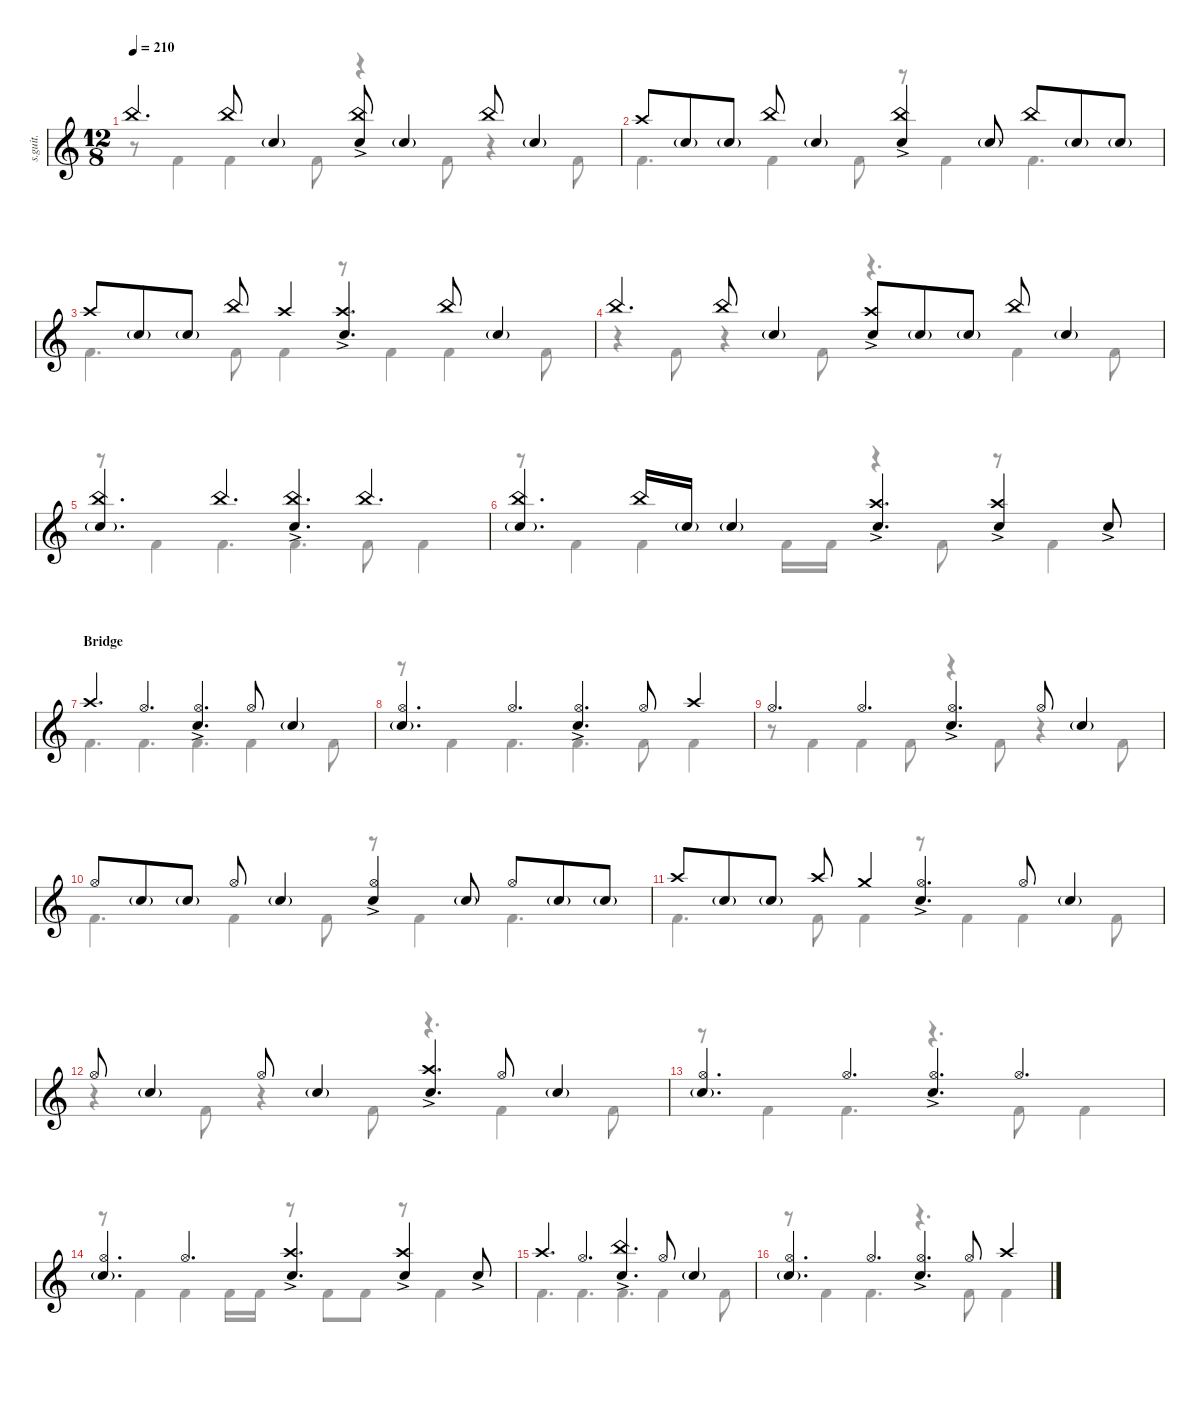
\defaultSystemsLayout 4
\hideDynamics
\bracketExtendMode nobrackets
\track ("Percussion" "s.guit.") {instrument percussion}
\staff {score}
\articulation defaults
\voice
\ts (12 8)
\tempo 210
\clef g2
\ks c "China (hit)".4{d lyrics (0 "") lyrics (1 "") lyrics (2 "") lyrics (3 "") lyrics (4 "") dy f} "China (hit)".8{lyrics (0 "") lyrics (1 "") lyrics (2 "") lyrics (3 "") lyrics (4 "")} "Snare (hit) 2"{g}.4{lyrics (0 "") lyrics (1 "") lyrics (2 "") lyrics (3 "") lyrics (4 "") dy ff}
("Snare (hit) 2"{ac} "China (hit)").8{lyrics (0 "") lyrics (1 "") lyrics (2 "") lyrics (3 "") lyrics (4 "") dy f} "Snare (hit) 2"{g}.4{lyrics (0 "") lyrics (1 "") lyrics (2 "") lyrics (3 "") lyrics (4 "") dy ff} "China (hit)".8{lyrics (0 "") lyrics (1 "") lyrics (2 "") lyrics (3 "") lyrics (4 "") dy f} "Snare (hit) 2"{g}.4{lyrics (0 "") lyrics (1 "") lyrics (2 "") lyrics (3 "") lyrics (4 "") dy ff} |
"Crash high (hit)".8{lyrics (0 "") lyrics (1 "") lyrics (2 "") lyrics (3 "") lyrics (4 "") dy f} "Snare (hit) 2"{g}.8{lyrics (0 "") lyrics (1 "") lyrics (2 "") lyrics (3 "") lyrics (4 "") dy ff} "Snare (hit) 2"{g}.8{lyrics (0 "") lyrics (1 "") lyrics (2 "") lyrics (3 "") lyrics (4 "")} "China (hit)".8{lyrics (0 "") lyrics (1 "") lyrics (2 "") lyrics (3 "") lyrics (4 "") dy f} "Snare (hit) 2"{g}.4{lyrics (0 "") lyrics (1 "") lyrics (2 "") lyrics (3 "") lyrics (4 "") dy ff} ("China (hit)" "Snare (hit) 2"{ac}).4{lyrics (0 "") lyrics (1 "") lyrics (2 "") lyrics (3 "") lyrics (4 "") dy f} "Snare (hit) 2"{g}.8{lyrics (0 "") lyrics (1 "") lyrics (2 "") lyrics (3 "") lyrics (4 "") dy ff} "China (hit)".8{lyrics (0 "") lyrics (1 "") lyrics (2 "") lyrics (3 "") lyrics (4 "") dy f} "Snare (hit) 2"{g}.8{lyrics (0 "") lyrics (1 "") lyrics (2 "") lyrics (3 "") lyrics (4 "") dy ff} "Snare (hit) 2"{g}.8{lyrics (0 "") lyrics (1 "") lyrics (2 "") lyrics (3 "") lyrics (4 "")} |
"Crash high (hit)".8{lyrics (0 "") lyrics (1 "") lyrics (2 "") lyrics (3 "") lyrics (4 "") dy f} "Snare (hit) 2"{g}.8{lyrics (0 "") lyrics (1 "") lyrics (2 "") lyrics (3 "") lyrics (4 "") dy ff} "Snare (hit) 2"{g}.8{lyrics (0 "") lyrics (1 "") lyrics (2 "") lyrics (3 "") lyrics (4 "")} "China (hit)".8{lyrics (0 "") lyrics (1 "") lyrics (2 "") lyrics (3 "") lyrics (4 "") dy f} "Crash high (hit)".4{lyrics (0 "") lyrics (1 "") lyrics (2 "") lyrics (3 "") lyrics (4 "")} ("Snare (hit) 2"{ac} "Crash high (hit)").4{d lyrics (0 "") lyrics (1 "") lyrics (2 "") lyrics (3 "") lyrics (4 "")} "China (hit)".8{lyrics (0 "") lyrics (1 "") lyrics (2 "") lyrics (3 "") lyrics (4 "")} "Snare (hit) 2"{g}.4{lyrics (0 "") lyrics (1 "") lyrics (2 "") lyrics (3 "") lyrics (4 "") dy ff} |
"China (hit)".4{d lyrics (0 "") lyrics (1 "") lyrics (2 "") lyrics (3 "") lyrics (4 "") dy f} "China (hit)".8{lyrics (0 "") lyrics (1 "") lyrics (2 "") lyrics (3 "") lyrics (4 "")} "Snare (hit) 2"{g}.4{lyrics (0 "") lyrics (1 "") lyrics (2 "") lyrics (3 "") lyrics (4 "") dy ff} ("Snare (hit) 2"{ac} "Crash high (hit)").8{lyrics (0 "") lyrics (1 "") lyrics (2 "") lyrics (3 "") lyrics (4 "") dy f} "Snare (hit) 2"{g}.8{lyrics (0 "") lyrics (1 "") lyrics (2 "") lyrics (3 "") lyrics (4 "") dy ff} "Snare (hit) 2"{g}.8{lyrics (0 "") lyrics (1 "") lyrics (2 "") lyrics (3 "") lyrics (4 "")} "China (hit)".8{lyrics (0 "") lyrics (1 "") lyrics (2 "") lyrics (3 "") lyrics (4 "") dy f} "Snare (hit) 2"{g}.4{lyrics (0 "") lyrics (1 "") lyrics (2 "") lyrics (3 "") lyrics (4 "") dy ff} |
("Snare (hit) 2"{g} "China (hit)").4{d lyrics (0 "") lyrics (1 "") lyrics (2 "") lyrics (3 "") lyrics (4 "") dy f} "China (hit)".4{d lyrics (0 "") lyrics (1 "") lyrics (2 "") lyrics (3 "") lyrics (4 "")} ("Snare (hit) 2"{ac} "China (hit)").4{d lyrics (0 "") lyrics (1 "") lyrics (2 "") lyrics (3 "") lyrics (4 "")} "China (hit)".4{d lyrics (0 "") lyrics (1 "") lyrics (2 "") lyrics (3 "") lyrics (4 "")} |
("Snare (hit) 2"{g} "China (hit)").4{d lyrics (0 "") lyrics (1 "") lyrics (2 "") lyrics (3 "") lyrics (4 "")} "China (hit)".16{lyrics (0 "") lyrics (1 "") lyrics (2 "") lyrics (3 "") lyrics (4 "")} "Snare (hit) 2"{g}.16{lyrics (0 "") lyrics (1 "") lyrics (2 "") lyrics (3 "") lyrics (4 "") dy ff} "Snare (hit) 2"{g}.4{lyrics (0 "") lyrics (1 "") lyrics (2 "") lyrics (3 "") lyrics (4 "")} ("Snare (hit) 2"{ac} "Crash high (hit)").4{d lyrics (0 "") lyrics (1 "") lyrics (2 "") lyrics (3 "") lyrics (4 "") dy f} ("Snare (hit) 2"{ac} "Crash high (hit)").4{lyrics (0 "") lyrics (1 "") lyrics (2 "") lyrics (3 "") lyrics (4 "")} "Snare (hit) 2"{ac}.8{lyrics (0 "") lyrics (1 "") lyrics (2 "") lyrics (3 "") lyrics (4 "") dy mf} |
\section ("" "Bridge")
"Crash high (hit)".4{d lyrics (0 "") lyrics (1 "") lyrics (2 "") lyrics (3 "") lyrics (4 "") dy f} "Hi-Hat (open)".4{d lyrics (0 "") lyrics (1 "") lyrics (2 "") lyrics (3 "") lyrics (4 "")} ("Snare (hit) 2"{ac} "Hi-Hat (open)").4{d lyrics (0 "") lyrics (1 "") lyrics (2 "") lyrics (3 "") lyrics (4 "")} "Hi-Hat (open)".8{lyrics (0 "") lyrics (1 "") lyrics (2 "") lyrics (3 "") lyrics (4 "")} "Snare (hit) 2"{g}.4{lyrics (0 "") lyrics (1 "") lyrics (2 "") lyrics (3 "") lyrics (4 "") dy ff} |
("Snare (hit) 2"{g} "Hi-Hat (open)").4{d lyrics (0 "") lyrics (1 "") lyrics (2 "") lyrics (3 "") lyrics (4 "") dy f} "Hi-Hat (open)".4{d lyrics (0 "") lyrics (1 "") lyrics (2 "") lyrics (3 "") lyrics (4 "")} ("Snare (hit) 2"{ac} "Hi-Hat (open)").4{d lyrics (0 "") lyrics (1 "") lyrics (2 "") lyrics (3 "") lyrics (4 "")} "Hi-Hat (open)".8{lyrics (0 "") lyrics (1 "") lyrics (2 "") lyrics (3 "") lyrics (4 "")} "Crash high (hit)".4{lyrics (0 "") lyrics (1 "") lyrics (2 "") lyrics (3 "") lyrics (4 "")} |
"Hi-Hat (open)".4{d lyrics (0 "") lyrics (1 "") lyrics (2 "") lyrics (3 "") lyrics (4 "")} "Hi-Hat (open)".4{d lyrics (0 "") lyrics (1 "") lyrics (2 "") lyrics (3 "") lyrics (4 "")} ("Snare (hit) 2"{ac} "Hi-Hat (open)").4{d lyrics (0 "") lyrics (1 "") lyrics (2 "") lyrics (3 "") lyrics (4 "")} "Hi-Hat (open)".8{lyrics (0 "") lyrics (1 "") lyrics (2 "") lyrics (3 "") lyrics (4 "")} "Snare (hit) 2"{g}.4{lyrics (0 "") lyrics (1 "") lyrics (2 "") lyrics (3 "") lyrics (4 "") dy ff} |
"Hi-Hat (open)".8{lyrics (0 "") lyrics (1 "") lyrics (2 "") lyrics (3 "") lyrics (4 "") dy f} "Snare (hit) 2"{g}.8{lyrics (0 "") lyrics (1 "") lyrics (2 "") lyrics (3 "") lyrics (4 "") dy ff} "Snare (hit) 2"{g}.8{lyrics (0 "") lyrics (1 "") lyrics (2 "") lyrics (3 "") lyrics (4 "")} "Hi-Hat (open)".8{lyrics (0 "") lyrics (1 "") lyrics (2 "") lyrics (3 "") lyrics (4 "") dy f} "Snare (hit) 2"{g}.4{lyrics (0 "") lyrics (1 "") lyrics (2 "") lyrics (3 "") lyrics (4 "") dy ff} ("Snare (hit) 2"{ac} "Hi-Hat (open)").4{lyrics (0 "") lyrics (1 "") lyrics (2 "") lyrics (3 "") lyrics (4 "") dy f} "Snare (hit) 2"{g}.8{lyrics (0 "") lyrics (1 "") lyrics (2 "") lyrics (3 "") lyrics (4 "") dy ff} "Hi-Hat (open)".8{lyrics (0 "") lyrics (1 "") lyrics (2 "") lyrics (3 "") lyrics (4 "") dy f} "Snare (hit) 2"{g}.8{lyrics (0 "") lyrics (1 "") lyrics (2 "") lyrics (3 "") lyrics (4 "") dy ff} "Snare (hit) 2"{g}.8{lyrics (0 "") lyrics (1 "") lyrics (2 "") lyrics (3 "") lyrics (4 "")} |
"Crash high (hit)".8{lyrics (0 "") lyrics (1 "") lyrics (2 "") lyrics (3 "") lyrics (4 "") dy f} "Snare (hit) 2"{g}.8{lyrics (0 "") lyrics (1 "") lyrics (2 "") lyrics (3 "") lyrics (4 "") dy ff} "Snare (hit) 2"{g}.8{lyrics (0 "") lyrics (1 "") lyrics (2 "") lyrics (3 "") lyrics (4 "")} "Crash high (hit)".8{lyrics (0 "") lyrics (1 "") lyrics (2 "") lyrics (3 "") lyrics (4 "") dy f} "Crash medium (hit)".4{lyrics (0 "") lyrics (1 "") lyrics (2 "") lyrics (3 "") lyrics (4 "")} ("Snare (hit) 2"{ac} "Hi-Hat (open)").4{d lyrics (0 "") lyrics (1 "") lyrics (2 "") lyrics (3 "") lyrics (4 "")} "Hi-Hat (open)".8{lyrics (0 "") lyrics (1 "") lyrics (2 "") lyrics (3 "") lyrics (4 "")} "Snare (hit) 2"{g}.4{lyrics (0 "") lyrics (1 "") lyrics (2 "") lyrics (3 "") lyrics (4 "") dy ff} |
"Hi-Hat (open)".8{lyrics (0 "") lyrics (1 "") lyrics (2 "") lyrics (3 "") lyrics (4 "") dy f} "Snare (hit) 2"{g}.4{lyrics (0 "") lyrics (1 "") lyrics (2 "") lyrics (3 "") lyrics (4 "") dy ff} "Hi-Hat (open)".8{lyrics (0 "") lyrics (1 "") lyrics (2 "") lyrics (3 "") lyrics (4 "") dy f} "Snare (hit) 2"{g}.4{lyrics (0 "") lyrics (1 "") lyrics (2 "") lyrics (3 "") lyrics (4 "") dy ff} ("Snare (hit) 2"{ac} "Crash high (hit)").4{d lyrics (0 "") lyrics (1 "") lyrics (2 "") lyrics (3 "") lyrics (4 "") dy f} "Hi-Hat (open)".8{lyrics (0 "") lyrics (1 "") lyrics (2 "") lyrics (3 "") lyrics (4 "")} "Snare (hit) 2"{g}.4{lyrics (0 "") lyrics (1 "") lyrics (2 "") lyrics (3 "") lyrics (4 "") dy ff} |
("Snare (hit) 2"{g} "Hi-Hat (open)").4{d lyrics (0 "") lyrics (1 "") lyrics (2 "") lyrics (3 "") lyrics (4 "") dy f} "Hi-Hat (open)".4{d lyrics (0 "") lyrics (1 "") lyrics (2 "") lyrics (3 "") lyrics (4 "")} ("Snare (hit) 2"{ac} "Hi-Hat (open)").4{d lyrics (0 "") lyrics (1 "") lyrics (2 "") lyrics (3 "") lyrics (4 "")} "Hi-Hat (open)".4{d lyrics (0 "") lyrics (1 "") lyrics (2 "") lyrics (3 "") lyrics (4 "")} |
("Snare (hit) 2"{g} "Hi-Hat (open)").4{d lyrics (0 "") lyrics (1 "") lyrics (2 "") lyrics (3 "") lyrics (4 "")} "Hi-Hat (open)".4{d lyrics (0 "") lyrics (1 "") lyrics (2 "") lyrics (3 "") lyrics (4 "")} ("Snare (hit) 2"{ac} "Crash high (hit)").4{d lyrics (0 "") lyrics (1 "") lyrics (2 "") lyrics (3 "") lyrics (4 "")} ("Snare (hit) 2"{ac} "Crash high (hit)").4{lyrics (0 "") lyrics (1 "") lyrics (2 "") lyrics (3 "") lyrics (4 "")} "Snare (hit) 2"{ac}.8{lyrics (0 "") lyrics (1 "") lyrics (2 "") lyrics (3 "") lyrics (4 "") dy mf} |
"Crash high (hit)".4{d lyrics (0 "") lyrics (1 "") lyrics (2 "") lyrics (3 "") lyrics (4 "") dy f} "Hi-Hat (open)".4{d lyrics (0 "") lyrics (1 "") lyrics (2 "") lyrics (3 "") lyrics (4 "")} ("Snare (hit) 2"{ac} "China (hit)").4{d lyrics (0 "") lyrics (1 "") lyrics (2 "") lyrics (3 "") lyrics (4 "")} "Hi-Hat (open)".8{lyrics (0 "") lyrics (1 "") lyrics (2 "") lyrics (3 "") lyrics (4 "")} "Snare (hit) 2"{g}.4{lyrics (0 "") lyrics (1 "") lyrics (2 "") lyrics (3 "") lyrics (4 "") dy ff} |
("Snare (hit) 2"{g} "Hi-Hat (open)").4{d lyrics (0 "") lyrics (1 "") lyrics (2 "") lyrics (3 "") lyrics (4 "") dy f} "Hi-Hat (open)".4{d lyrics (0 "") lyrics (1 "") lyrics (2 "") lyrics (3 "") lyrics (4 "")} ("Snare (hit) 2"{ac} "Hi-Hat (open)").4{d lyrics (0 "") lyrics (1 "") lyrics (2 "") lyrics (3 "") lyrics (4 "")} "Hi-Hat (open)".8{lyrics (0 "") lyrics (1 "") lyrics (2 "") lyrics (3 "") lyrics (4 "")} "Crash high (hit)".4{lyrics (0 "") lyrics (1 "") lyrics (2 "") lyrics (3 "") lyrics (4 "")}
\voice
\clef g2
\ottava regular
\simile none
\ks c
r.8{dy f} "Kick (hit) 2".4{lyrics (0 "") lyrics (1 "") lyrics (2 "") lyrics (3 "") lyrics (4 "")} "Kick (hit) 2".4{lyrics (0 "") lyrics (1 "") lyrics (2 "") lyrics (3 "") lyrics (4 "")} "Kick (hit) 2".8{lyrics (0 "") lyrics (1 "") lyrics (2 "") lyrics (3 "") lyrics (4 "")} r.4 "Kick (hit) 2".8{lyrics (0 "") lyrics (1 "") lyrics (2 "") lyrics (3 "") lyrics (4 "")} r.4 "Kick (hit) 2".8{lyrics (0 "") lyrics (1 "") lyrics (2 "") lyrics (3 "") lyrics (4 "")} |
"Kick (hit) 2".4{d lyrics (0 "") lyrics (1 "") lyrics (2 "") lyrics (3 "") lyrics (4 "")} "Kick (hit) 2".4{lyrics (0 "") lyrics (1 "") lyrics (2 "") lyrics (3 "") lyrics (4 "")} "Kick (hit) 2".8{lyrics (0 "") lyrics (1 "") lyrics (2 "") lyrics (3 "") lyrics (4 "")} r.8 "Kick (hit) 2".4{lyrics (0 "") lyrics (1 "") lyrics (2 "") lyrics (3 "") lyrics (4 "")} "Kick (hit) 2".4{d lyrics (0 "") lyrics (1 "") lyrics (2 "") lyrics (3 "") lyrics (4 "")} |
"Kick (hit) 2".4{d lyrics (0 "") lyrics (1 "") lyrics (2 "") lyrics (3 "") lyrics (4 "")} "Kick (hit) 2".8{lyrics (0 "") lyrics (1 "") lyrics (2 "") lyrics (3 "") lyrics (4 "")} "Kick (hit) 2".4{lyrics (0 "") lyrics (1 "") lyrics (2 "") lyrics (3 "") lyrics (4 "")} r.8 "Kick (hit) 2".4{lyrics (0 "") lyrics (1 "") lyrics (2 "") lyrics (3 "") lyrics (4 "")} "Kick (hit) 2".4{lyrics (0 "") lyrics (1 "") lyrics (2 "") lyrics (3 "") lyrics (4 "")} "Kick (hit) 2".8{lyrics (0 "") lyrics (1 "") lyrics (2 "") lyrics (3 "") lyrics (4 "")} |
r.4 "Kick (hit) 2".8{lyrics (0 "") lyrics (1 "") lyrics (2 "") lyrics (3 "") lyrics (4 "")} r.4 "Kick (hit) 2".8{lyrics (0 "") lyrics (1 "") lyrics (2 "") lyrics (3 "") lyrics (4 "")} r.4{d} "Kick (hit) 2".4{lyrics (0 "") lyrics (1 "") lyrics (2 "") lyrics (3 "") lyrics (4 "")} "Kick (hit) 2".8{lyrics (0 "") lyrics (1 "") lyrics (2 "") lyrics (3 "") lyrics (4 "")} |
r.8 "Kick (hit) 2".4{lyrics (0 "") lyrics (1 "") lyrics (2 "") lyrics (3 "") lyrics (4 "")} "Kick (hit) 2".4{d lyrics (0 "") lyrics (1 "") lyrics (2 "") lyrics (3 "") lyrics (4 "")} "Kick (hit) 2".4{d lyrics (0 "") lyrics (1 "") lyrics (2 "") lyrics (3 "") lyrics (4 "")} "Kick (hit) 2".8{lyrics (0 "") lyrics (1 "") lyrics (2 "") lyrics (3 "") lyrics (4 "")} "Kick (hit) 2".4{lyrics (0 "") lyrics (1 "") lyrics (2 "") lyrics (3 "") lyrics (4 "")} |
r.8 "Kick (hit) 2".4{lyrics (0 "") lyrics (1 "") lyrics (2 "") lyrics (3 "") lyrics (4 "")} "Kick (hit) 2".4{lyrics (0 "") lyrics (1 "") lyrics (2 "") lyrics (3 "") lyrics (4 "")} "Kick (hit) 2".16{lyrics (0 "") lyrics (1 "") lyrics (2 "") lyrics (3 "") lyrics (4 "")} "Kick (hit) 2".16{lyrics (0 "") lyrics (1 "") lyrics (2 "") lyrics (3 "") lyrics (4 "")} r.4 "Kick (hit) 2".8{lyrics (0 "") lyrics (1 "") lyrics (2 "") lyrics (3 "") lyrics (4 "")} r.8 "Kick (hit) 2".4{lyrics (0 "") lyrics (1 "") lyrics (2 "") lyrics (3 "") lyrics (4 "")} |
"Kick (hit) 2".4{d lyrics (0 "") lyrics (1 "") lyrics (2 "") lyrics (3 "") lyrics (4 "")} "Kick (hit) 2".4{d lyrics (0 "") lyrics (1 "") lyrics (2 "") lyrics (3 "") lyrics (4 "")} "Kick (hit) 2".4{d lyrics (0 "") lyrics (1 "") lyrics (2 "") lyrics (3 "") lyrics (4 "")} "Kick (hit) 2".4{lyrics (0 "") lyrics (1 "") lyrics (2 "") lyrics (3 "") lyrics (4 "")} "Kick (hit) 2".8{lyrics (0 "") lyrics (1 "") lyrics (2 "") lyrics (3 "") lyrics (4 "")} |
r.8 "Kick (hit) 2".4{lyrics (0 "") lyrics (1 "") lyrics (2 "") lyrics (3 "") lyrics (4 "")} "Kick (hit) 2".4{d lyrics (0 "") lyrics (1 "") lyrics (2 "") lyrics (3 "") lyrics (4 "")} "Kick (hit) 2".4{d lyrics (0 "") lyrics (1 "") lyrics (2 "") lyrics (3 "") lyrics (4 "")} "Kick (hit) 2".8{lyrics (0 "") lyrics (1 "") lyrics (2 "") lyrics (3 "") lyrics (4 "")} "Kick (hit) 2".4{lyrics (0 "") lyrics (1 "") lyrics (2 "") lyrics (3 "") lyrics (4 "")} |
r.8 "Kick (hit) 2".4{lyrics (0 "") lyrics (1 "") lyrics (2 "") lyrics (3 "") lyrics (4 "")} "Kick (hit) 2".4{lyrics (0 "") lyrics (1 "") lyrics (2 "") lyrics (3 "") lyrics (4 "")} "Kick (hit) 2".8{lyrics (0 "") lyrics (1 "") lyrics (2 "") lyrics (3 "") lyrics (4 "")} r.4 "Kick (hit) 2".8{lyrics (0 "") lyrics (1 "") lyrics (2 "") lyrics (3 "") lyrics (4 "")} r.4 "Kick (hit) 2".8{lyrics (0 "") lyrics (1 "") lyrics (2 "") lyrics (3 "") lyrics (4 "")} |
"Kick (hit) 2".4{d lyrics (0 "") lyrics (1 "") lyrics (2 "") lyrics (3 "") lyrics (4 "")} "Kick (hit) 2".4{lyrics (0 "") lyrics (1 "") lyrics (2 "") lyrics (3 "") lyrics (4 "")} "Kick (hit) 2".8{lyrics (0 "") lyrics (1 "") lyrics (2 "") lyrics (3 "") lyrics (4 "")} r.8 "Kick (hit) 2".4{lyrics (0 "") lyrics (1 "") lyrics (2 "") lyrics (3 "") lyrics (4 "")} "Kick (hit) 2".4{d lyrics (0 "") lyrics (1 "") lyrics (2 "") lyrics (3 "") lyrics (4 "")} |
"Kick (hit) 2".4{d lyrics (0 "") lyrics (1 "") lyrics (2 "") lyrics (3 "") lyrics (4 "")} "Kick (hit) 2".8{lyrics (0 "") lyrics (1 "") lyrics (2 "") lyrics (3 "") lyrics (4 "")} "Kick (hit) 2".4{lyrics (0 "") lyrics (1 "") lyrics (2 "") lyrics (3 "") lyrics (4 "")} r.8 "Kick (hit) 2".4{lyrics (0 "") lyrics (1 "") lyrics (2 "") lyrics (3 "") lyrics (4 "")} "Kick (hit) 2".4{lyrics (0 "") lyrics (1 "") lyrics (2 "") lyrics (3 "") lyrics (4 "")} "Kick (hit) 2".8{lyrics (0 "") lyrics (1 "") lyrics (2 "") lyrics (3 "") lyrics (4 "")} |
r.4 "Kick (hit) 2".8{lyrics (0 "") lyrics (1 "") lyrics (2 "") lyrics (3 "") lyrics (4 "")} r.4 "Kick (hit) 2".8{lyrics (0 "") lyrics (1 "") lyrics (2 "") lyrics (3 "") lyrics (4 "")} r.4{d} "Kick (hit) 2".4{lyrics (0 "") lyrics (1 "") lyrics (2 "") lyrics (3 "") lyrics (4 "")} "Kick (hit) 2".8{lyrics (0 "") lyrics (1 "") lyrics (2 "") lyrics (3 "") lyrics (4 "")} |
r.8 "Kick (hit) 2".4{lyrics (0 "") lyrics (1 "") lyrics (2 "") lyrics (3 "") lyrics (4 "")} "Kick (hit) 2".4{d lyrics (0 "") lyrics (1 "") lyrics (2 "") lyrics (3 "") lyrics (4 "")} r.4{d} "Kick (hit) 2".8{lyrics (0 "") lyrics (1 "") lyrics (2 "") lyrics (3 "") lyrics (4 "")} "Kick (hit) 2".4{lyrics (0 "") lyrics (1 "") lyrics (2 "") lyrics (3 "") lyrics (4 "")} |
r.8 "Kick (hit) 2".4{lyrics (0 "") lyrics (1 "") lyrics (2 "") lyrics (3 "") lyrics (4 "")} "Kick (hit) 2".4{lyrics (0 "") lyrics (1 "") lyrics (2 "") lyrics (3 "") lyrics (4 "")} "Kick (hit) 2".16{lyrics (0 "") lyrics (1 "") lyrics (2 "") lyrics (3 "") lyrics (4 "")} "Kick (hit) 2".16{lyrics (0 "") lyrics (1 "") lyrics (2 "") lyrics (3 "") lyrics (4 "")} r.8 "Kick (hit) 2".8{lyrics (0 "") lyrics (1 "") lyrics (2 "") lyrics (3 "") lyrics (4 "")} "Kick (hit) 2".8{lyrics (0 "") lyrics (1 "") lyrics (2 "") lyrics (3 "") lyrics (4 "")} r.8 "Kick (hit) 2".4{lyrics (0 "") lyrics (1 "") lyrics (2 "") lyrics (3 "") lyrics (4 "")} |
"Kick (hit) 2".4{d lyrics (0 "") lyrics (1 "") lyrics (2 "") lyrics (3 "") lyrics (4 "")} "Kick (hit) 2".4{d lyrics (0 "") lyrics (1 "") lyrics (2 "") lyrics (3 "") lyrics (4 "")} "Kick (hit) 2".4{d lyrics (0 "") lyrics (1 "") lyrics (2 "") lyrics (3 "") lyrics (4 "")} "Kick (hit) 2".4{lyrics (0 "") lyrics (1 "") lyrics (2 "") lyrics (3 "") lyrics (4 "")} "Kick (hit) 2".8{lyrics (0 "") lyrics (1 "") lyrics (2 "") lyrics (3 "") lyrics (4 "")} |
r.8 "Kick (hit) 2".4{lyrics (0 "") lyrics (1 "") lyrics (2 "") lyrics (3 "") lyrics (4 "")} "Kick (hit) 2".4{d lyrics (0 "") lyrics (1 "") lyrics (2 "") lyrics (3 "") lyrics (4 "")} r.4{d} "Kick (hit) 2".8{lyrics (0 "") lyrics (1 "") lyrics (2 "") lyrics (3 "") lyrics (4 "")} "Kick (hit) 2".4{lyrics (0 "") lyrics (1 "") lyrics (2 "") lyrics (3 "") lyrics (4 "")}
